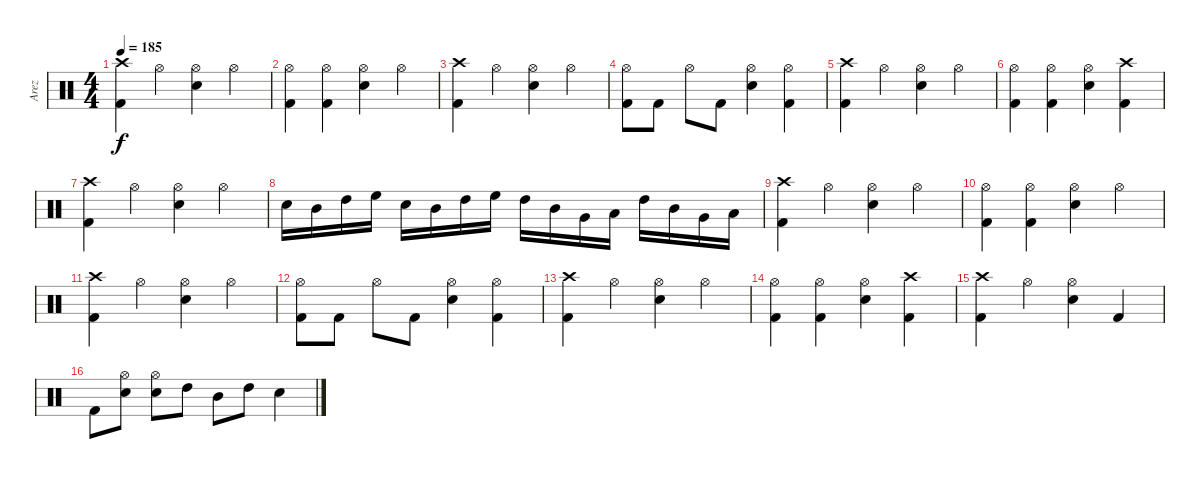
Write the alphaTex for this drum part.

\track ("Arez" "Arez") {instrument percussion}
\staff {score}
\articulation defaults
\ts (4 4)
\tempo 185
\clef neutral
\ks c
("Crash high (hit)" "Kick (hit) 2").4{dy f} "Hi-Hat (open)".4 ("Electric Snare (hit)" "Hi-Hat (open)").4 "Hi-Hat (open)".4 |
("Kick (hit) 2" "Hi-Hat (open)").4 ("Kick (hit) 2" "Hi-Hat (open)").4 ("Hi-Hat (open)" "Electric Snare (hit)").4 "Hi-Hat (open)".4 |
("Crash high (hit)" "Kick (hit) 2").4 "Hi-Hat (open)".4 ("Electric Snare (hit)" "Hi-Hat (open)").4 "Hi-Hat (open)".4 |
("Kick (hit) 2" "Hi-Hat (open)").8 "Kick (hit) 2".8 "Hi-Hat (open)".8 "Kick (hit) 2".8 ("Electric Snare (hit)" "Hi-Hat (open)").4 ("Hi-Hat (open)" "Kick (hit) 2").4 |
("Crash high (hit)" "Kick (hit) 2").4 "Hi-Hat (open)".4 ("Electric Snare (hit)" "Hi-Hat (open)").4 "Hi-Hat (open)".4 |
("Kick (hit) 2" "Hi-Hat (open)").4 ("Kick (hit) 2" "Hi-Hat (open)").4 ("Hi-Hat (open)" "Electric Snare (hit)").4 ("Crash high (hit)" "Kick (hit) 2").4 |
("Crash high (hit)" "Kick (hit) 2").4 "Hi-Hat (open)".4 ("Electric Snare (hit)" "Hi-Hat (open)").4 "Hi-Hat (open)".4 |
"Electric Snare (hit)".16 "Mid Tom (hit)".16 "High Tom (hit)".16 "High Floor Tom (hit)".16 "Electric Snare (hit)".16 "Mid Tom (hit)".16 "High Tom (hit)".16 "High Floor Tom (hit)".16 "High Tom (hit)".16 "Mid Tom (hit)".16 "Very Low Tom (hit)".16 "Low Floor Tom (hit)".16 "High Tom (hit)".16 "Mid Tom (hit)".16 "Very Low Tom (hit)".16 "Low Floor Tom (hit)".16 |
("Crash high (hit)" "Kick (hit) 2").4 "Hi-Hat (open)".4 ("Electric Snare (hit)" "Hi-Hat (open)").4 "Hi-Hat (open)".4 |
("Kick (hit) 2" "Hi-Hat (open)").4 ("Kick (hit) 2" "Hi-Hat (open)").4 ("Hi-Hat (open)" "Electric Snare (hit)").4 "Hi-Hat (open)".4 |
("Crash high (hit)" "Kick (hit) 2").4 "Hi-Hat (open)".4 ("Electric Snare (hit)" "Hi-Hat (open)").4 "Hi-Hat (open)".4 |
("Kick (hit) 2" "Hi-Hat (open)").8 "Kick (hit) 2".8 "Hi-Hat (open)".8 "Kick (hit) 2".8 ("Electric Snare (hit)" "Hi-Hat (open)").4 ("Hi-Hat (open)" "Kick (hit) 2").4 |
("Crash high (hit)" "Kick (hit) 2").4 "Hi-Hat (open)".4 ("Electric Snare (hit)" "Hi-Hat (open)").4 "Hi-Hat (open)".4 |
("Kick (hit) 2" "Hi-Hat (open)").4 ("Kick (hit) 2" "Hi-Hat (open)").4 ("Hi-Hat (open)" "Electric Snare (hit)").4 ("Crash high (hit)" "Kick (hit) 2").4 |
("Crash high (hit)" "Kick (hit) 2").4 "Hi-Hat (open)".4 ("Electric Snare (hit)" "Hi-Hat (open)").4 "Kick (hit) 2".4 |
"Kick (hit) 2".8 ("Electric Snare (hit)" "Hi-Hat (open)").8 ("Electric Snare (hit)" "Hi-Hat (open)").8 "High Tom (hit)".8 "Mid Tom (hit)".8 "High Tom (hit)".8 "Electric Snare (hit)".4
